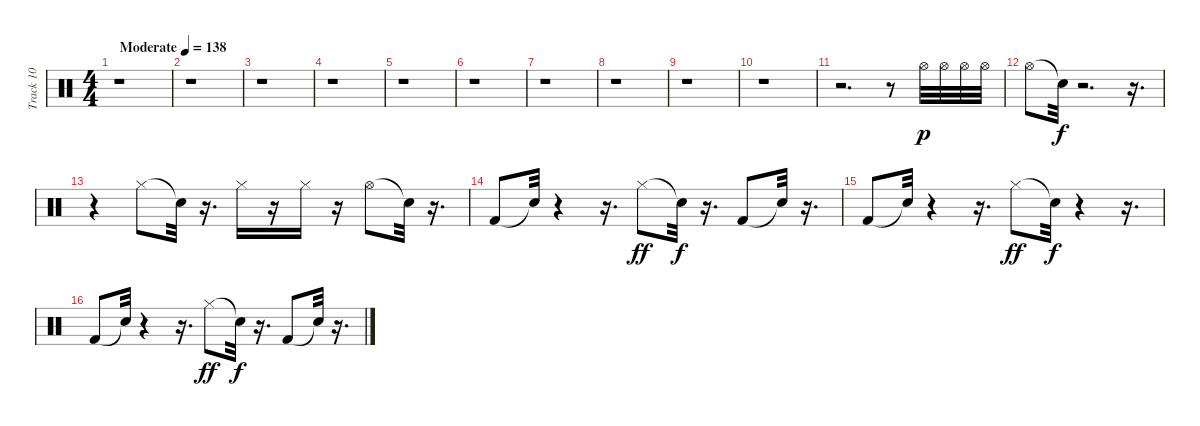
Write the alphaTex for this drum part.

\track ("Track 10" "Track 10") {instrument percussion}
\staff {score}
\articulation defaults
\ts (4 4)
\tempo (138 "Moderate")
\clef neutral
\ks c
r.1{dy p} |
r.1 |
r.1 |
r.1 |
r.1 |
r.1 |
r.1 |
r.1 |
r.1 |
r.1 |
r.2{d} r.8 "Hi-Hat (open)".32{volume 15 balance 8} "Hi-Hat (open)".32 "Hi-Hat (open)".32 "Hi-Hat (open)".32 |
"Hi-Hat (open)".8 "Snare (hit)"{t}.32{dy f} r.2{d} r.16{d} |
r.4 "Hi-Hat (closed)".8 "Snare (hit)"{t}.32 r.16{d} "Hi-Hat (closed)".16 r.16 "Hi-Hat (closed)".16 r.16 "Hi-Hat (open)".8 "Snare (hit)"{t}.32 r.16{d} |
"Kick (hit) 2".8 "Snare (hit)"{t}.32 r.4 r.16{d} "Hi-Hat (closed)".8{dy ff} "Snare (hit)"{t}.32{dy f} r.16{d} "Kick (hit) 2".8 "Snare (hit)"{t}.32 r.16{d} |
"Kick (hit) 2".8 "Snare (hit)"{t}.32 r.4 r.16{d} "Hi-Hat (closed)".8{dy ff} "Snare (hit)"{t}.32{dy f} r.4 r.16{d} |
"Kick (hit) 2".8 "Snare (hit)"{t}.32 r.4 r.16{d} "Hi-Hat (closed)".8{dy ff} "Snare (hit)"{t}.32{dy f} r.16{d} "Kick (hit) 2".8 "Snare (hit)"{t}.32 r.16{d}
